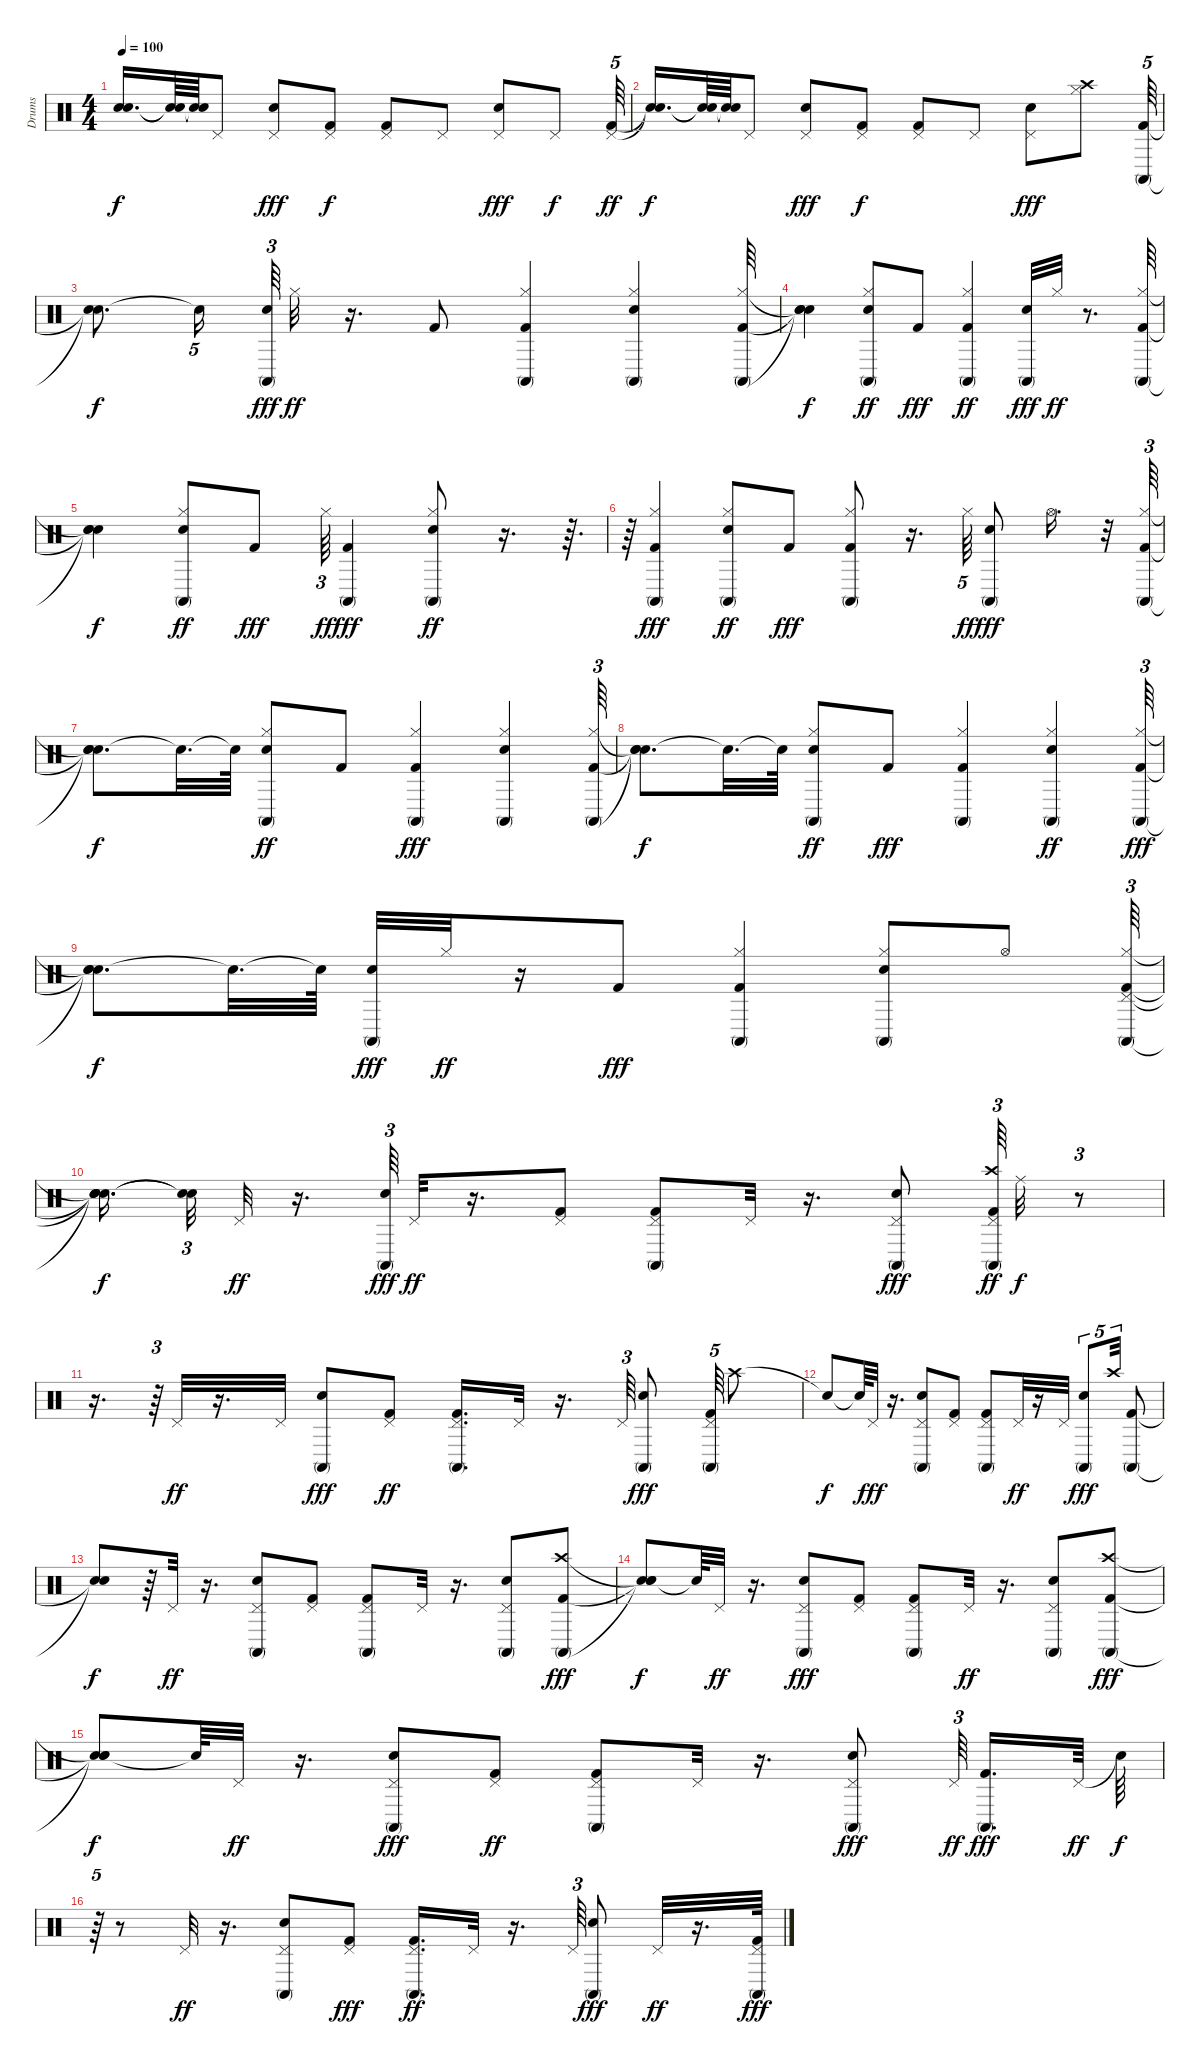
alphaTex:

\track ("Drums" "Drums") {instrument percussion}
\staff {score}
\articulation defaults
\ts (4 4)
\tempo 100
\clef neutral
\ks c
("Snare (hit)"{t} "Snare (hit)"{t}).16{d dy f} ("Snare (hit)"{t} "Snare (hit)"{t}).64 ("Snare (hit)"{t} "Snare (hit)"{t}).64 "Pedal Hi-Hat (hit)".8 ("Snare (hit) 2" "Pedal Hi-Hat (hit)").8{dy fff} ("Kick (hit) 2" "Pedal Hi-Hat (hit)").8{dy f} ("Kick (hit) 2" "Pedal Hi-Hat (hit)").8 "Pedal Hi-Hat (hit)".8 ("Snare (hit) 2" "Pedal Hi-Hat (hit)").8{dy fff} "Pedal Hi-Hat (hit)".8{dy f} ("Pedal Hi-Hat (hit)" "Kick (hit) 2").64{tu (5 4) dy ff} |
("Snare (hit)"{t} "Snare (hit)"{t}).16{d dy f} ("Snare (hit)"{t} "Snare (hit)"{t}).64 ("Snare (hit)"{t} "Snare (hit)"{t}).64 "Pedal Hi-Hat (hit)".8 ("Pedal Hi-Hat (hit)" "Snare (hit) 2").8{dy fff} ("Kick (hit) 2" "Pedal Hi-Hat (hit)").8{dy f} ("Pedal Hi-Hat (hit)" "Kick (hit) 2").8 "Pedal Hi-Hat (hit)".8 ("Pedal Hi-Hat (hit)" "Snare (hit) 2").8{dy fff} ("Crash high (hit)" "Hi-Hat (closed)").8 ("Conga high (mute)" "Kick (hit) 2").64{tu (5 4)} |
("Snare (hit)"{t} "Snare (hit)"{t}).8{d dy f} "Snare (hit)"{t}.16{tu (5 4)} ("Snare (hit) 2" "Conga high (mute)").64{tu (3 2) dy fff} "Hi-Hat (closed)".32{dy ff} r.16{d} "Kick (hit) 2".8 ("Kick (hit) 2" "Conga high (mute)" "Hi-Hat (closed)").4 ("Snare (hit) 2" "Conga high (mute)" "Hi-Hat (closed)").4 ("Kick (hit) 2" "Conga high (mute)" "Hi-Hat (closed)").64 |
("Snare (hit)"{t} "Snare (hit)"{t} "Snare (hit)"{t}).4{dy f} ("Snare (hit) 2" "Conga high (mute)" "Hi-Hat (closed)").8{dy ff} "Kick (hit) 2".8{dy fff} ("Conga high (mute)" "Kick (hit) 2" "Hi-Hat (closed)").4{dy ff} ("Snare (hit) 2" "Conga high (mute)").32{dy fff} "Hi-Hat (closed)".32{dy ff} r.8{d} ("Conga high (mute)" "Kick (hit) 2" "Hi-Hat (closed)").64 |
("Snare (hit)"{t} "Snare (hit)"{t} "Snare (hit)"{t}).4{dy f} ("Snare (hit) 2" "Conga high (mute)" "Hi-Hat (closed)").8{dy ff} "Kick (hit) 2".8{dy fff} "Hi-Hat (closed)".64{tu (3 2) dy ff} ("Conga high (mute)" "Kick (hit) 2").4{dy fff} ("Snare (hit) 2" "Conga high (mute)" "Hi-Hat (closed)").8{dy ff} r.16{d} r.64{d} |
r.64 ("Hi-Hat (closed)" "Kick (hit) 2" "Conga high (mute)").4{dy fff} ("Snare (hit) 2" "Conga high (mute)" "Hi-Hat (closed)").8{dy ff} "Kick (hit) 2".8{dy fff} ("Hi-Hat (closed)" "Kick (hit) 2" "Conga high (mute)").8 r.16{d} "Hi-Hat (closed)".64{tu (5 4) dy ff} ("Conga high (mute)" "Snare (hit) 2").8{dy fff} "Hi-Hat (open)".16{d} r.32 ("Hi-Hat (closed)" "Kick (hit) 2" "Conga high (mute)").64{tu (3 2)} |
("Snare (hit)"{t} "Snare (hit)"{t} "Snare (hit)"{t}).8{d dy f} "Snare (hit)"{t}.32{d} "Snare (hit)"{t}.64 ("Hi-Hat (closed)" "Snare (hit) 2" "Conga high (mute)").8{dy ff} "Kick (hit) 2".8 ("Hi-Hat (closed)" "Kick (hit) 2" "Conga high (mute)").4{dy fff} ("Hi-Hat (closed)" "Snare (hit) 2" "Conga high (mute)").4 ("Hi-Hat (closed)" "Kick (hit) 2" "Conga high (mute)").64{tu (3 2)} |
("Snare (hit)"{t} "Snare (hit)"{t} "Snare (hit)"{t}).8{d dy f} "Snare (hit)"{t}.32{d} "Snare (hit)"{t}.64 ("Snare (hit) 2" "Conga high (mute)" "Hi-Hat (closed)").8{dy ff} "Kick (hit) 2".8{dy fff} ("Hi-Hat (closed)" "Kick (hit) 2" "Conga high (mute)").4 ("Snare (hit) 2" "Conga high (mute)" "Hi-Hat (closed)").4{dy ff} ("Hi-Hat (closed)" "Kick (hit) 2" "Conga high (mute)").64{tu (3 2) dy fff} |
("Snare (hit)"{t} "Snare (hit)"{t} "Snare (hit)"{t}).8{d dy f} "Snare (hit)"{t}.32{d} "Snare (hit)"{t}.64 ("Snare (hit) 2" "Conga high (mute)").32{dy fff} "Hi-Hat (closed)".32{dy ff} r.16 "Kick (hit) 2".8{dy fff} ("Hi-Hat (closed)" "Kick (hit) 2" "Conga high (mute)").4 ("Hi-Hat (closed)" "Snare (hit) 2" "Conga high (mute)").8 "Hi-Hat (open)".8 ("Hi-Hat (closed)" "Pedal Hi-Hat (hit)" "Kick (hit) 2" "Conga high (mute)").64{tu (3 2)} |
("Snare (hit)"{t} "Snare (hit)"{t} "Snare (hit)"{t} "Snare (hit)"{t}).16{d dy f} ("Snare (hit)"{t} "Snare (hit)"{t}).32{tu (3 2)} "Pedal Hi-Hat (hit)".32{dy ff} r.16{d} ("Snare (hit) 2" "Conga high (mute)").64{tu (3 2) dy fff} "Pedal Hi-Hat (hit)".32{dy ff} r.16{d} ("Kick (hit) 2" "Pedal Hi-Hat (hit)").8 ("Kick (hit) 2" "Conga high (mute)" "Pedal Hi-Hat (hit)").8 "Pedal Hi-Hat (hit)".32 r.16{d} ("Pedal Hi-Hat (hit)" "Snare (hit) 2" "Conga high (mute)").8{dy fff} ("Conga high (mute)" "Kick (hit) 2" "Pedal Hi-Hat (hit)" "Crash high (hit)").64{tu (3 2) dy ff} "Ride (middle)".32{dy f} r.8{tu (3 2)} |
r.16{d} r.64{tu (3 2)} "Pedal Hi-Hat (hit)".32{dy ff} r.16{d} "Pedal Hi-Hat (hit)".32 ("Snare (hit) 2" "Conga high (mute)").8{dy fff} ("Kick (hit) 2" "Pedal Hi-Hat (hit)").8{dy ff} ("Kick (hit) 2" "Conga high (mute)" "Pedal Hi-Hat (hit)").16{d} "Pedal Hi-Hat (hit)".32 r.16{d} "Pedal Hi-Hat (hit)".64{tu (3 2)} ("Snare (hit) 2" "Conga high (mute)").8{dy fff} ("Conga high (mute)" "Kick (hit) 2" "Pedal Hi-Hat (hit)").64{tu (5 4)} "Crash high (hit)".8 |
"Snare (hit)"{t}.8{dy f} "Snare (hit)"{t}.64 "Pedal Hi-Hat (hit)".32{dy fff} r.16{d} ("Pedal Hi-Hat (hit)" "Conga high (mute)" "Snare (hit) 2").8 ("Pedal Hi-Hat (hit)" "Kick (hit) 2").8 ("Pedal Hi-Hat (hit)" "Conga high (mute)" "Kick (hit) 2").8 "Pedal Hi-Hat (hit)".32{dy ff} r.16 "Pedal Hi-Hat (hit)".32 ("Conga high (mute)" "Snare (hit) 2").8{tu (5 4) dy fff} "Crash high (hit)".32{tu (5 4)} ("Conga high (mute)" "Kick (hit) 2").8 |
("Snare (hit)"{t} "Snare (hit)"{t}).8{dy f} r.64 "Pedal Hi-Hat (hit)".32{dy ff} r.16{d} ("Snare (hit) 2" "Conga high (mute)" "Pedal Hi-Hat (hit)").8 ("Kick (hit) 2" "Pedal Hi-Hat (hit)").8 ("Kick (hit) 2" "Conga high (mute)" "Pedal Hi-Hat (hit)").8 "Pedal Hi-Hat (hit)".32 r.16{d} ("Snare (hit) 2" "Conga high (mute)" "Pedal Hi-Hat (hit)").8 ("Crash high (hit)" "Conga high (mute)" "Kick (hit) 2").8{dy fff} |
("Snare (hit)"{t} "Snare (hit)"{t} "Snare (hit)"{t}).8{dy f} "Snare (hit)"{t}.64 "Pedal Hi-Hat (hit)".32{dy ff} r.16{d} ("Pedal Hi-Hat (hit)" "Conga high (mute)" "Snare (hit) 2").8{dy fff} ("Pedal Hi-Hat (hit)" "Kick (hit) 2").8 ("Pedal Hi-Hat (hit)" "Conga high (mute)" "Kick (hit) 2").8 "Pedal Hi-Hat (hit)".32{dy ff} r.16{d} ("Conga high (mute)" "Snare (hit) 2" "Pedal Hi-Hat (hit)").8 ("Conga high (mute)" "Kick (hit) 2" "Crash high (hit)").8{dy fff} |
("Snare (hit)"{t} "Snare (hit)"{t} "Snare (hit)"{t}).8{dy f} "Snare (hit)"{t}.64 "Pedal Hi-Hat (hit)".32{dy ff} r.16{d} ("Pedal Hi-Hat (hit)" "Conga high (mute)" "Snare (hit) 2").8{dy fff} ("Kick (hit) 2" "Pedal Hi-Hat (hit)").8{dy ff} ("Conga high (mute)" "Kick (hit) 2" "Pedal Hi-Hat (hit)").8 "Pedal Hi-Hat (hit)".32 r.16{d} ("Pedal Hi-Hat (hit)" "Conga high (mute)" "Snare (hit) 2").8{dy fff} "Pedal Hi-Hat (hit)".64{tu (3 2) dy ff} ("Conga high (mute)" "Kick (hit) 2").16{d dy fff} "Pedal Hi-Hat (hit)".64{dy ff} "Snare (hit)"{t}.64{dy f} |
r.64{tu (5 4)} r.8 "Pedal Hi-Hat (hit)".32{dy ff} r.16{d} ("Conga high (mute)" "Snare (hit) 2" "Pedal Hi-Hat (hit)").8 ("Pedal Hi-Hat (hit)" "Kick (hit) 2").8{dy fff} ("Conga high (mute)" "Kick (hit) 2" "Pedal Hi-Hat (hit)").16{d dy ff} "Pedal Hi-Hat (hit)".32 r.16{d} "Pedal Hi-Hat (hit)".64{tu (3 2)} ("Conga high (mute)" "Snare (hit) 2").8{dy fff} "Pedal Hi-Hat (hit)".32{dy ff} r.16{d} ("Pedal Hi-Hat (hit)" "Kick (hit) 2" "Conga high (mute)").64{dy fff}
